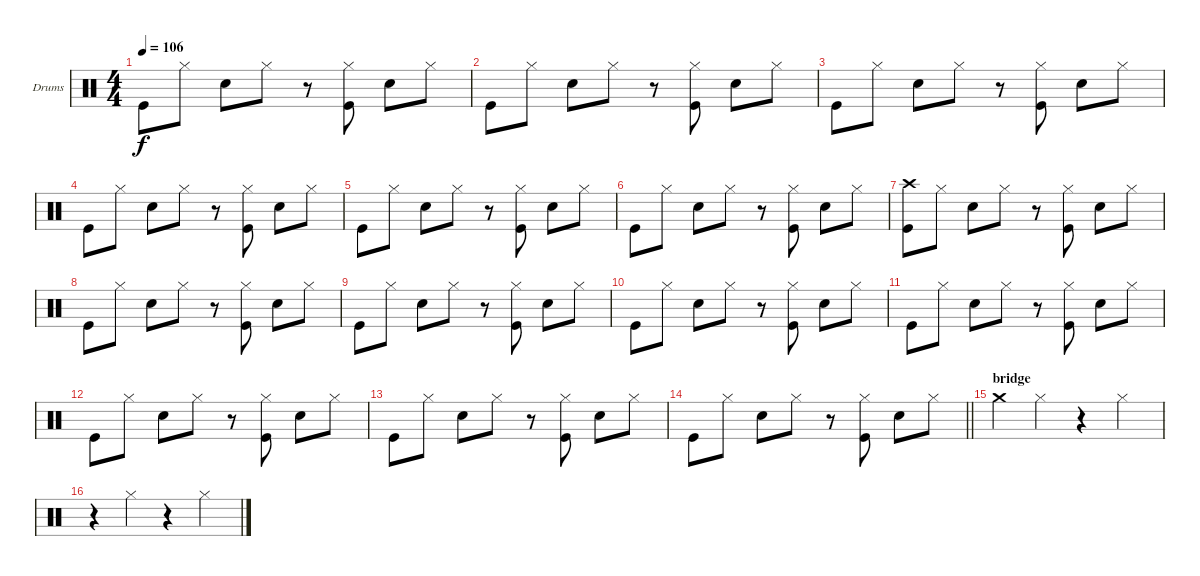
\bracketExtendMode groupsimilarinstruments
\firstSystemTrackNameOrientation horizontal
\otherSystemsTrackNameOrientation horizontal
\track ("Drumkit" "Drums") {instrument percussion}
\staff {score}
\articulation defaults
\ts (4 4)
\tempo 106
\clef neutral
\ks c "Kick (hit)".8{dy f} "Hi-Hat (closed)".8 "Snare (hit) 2".8 "Hi-Hat (closed)".8
r.8 ("Hi-Hat (closed)" "Kick (hit)").8 "Snare (hit) 2".8 "Hi-Hat (closed)".8 |
"Kick (hit)".8 "Hi-Hat (closed)".8 "Snare (hit) 2".8 "Hi-Hat (closed)".8 r.8 ("Hi-Hat (closed)" "Kick (hit)").8 "Snare (hit) 2".8 "Hi-Hat (closed)".8 |
"Kick (hit)".8 "Hi-Hat (closed)".8 "Snare (hit) 2".8 "Hi-Hat (closed)".8 r.8 ("Hi-Hat (closed)" "Kick (hit)").8 "Snare (hit) 2".8 "Hi-Hat (closed)".8 |
"Kick (hit)".8 "Hi-Hat (closed)".8 "Snare (hit) 2".8 "Hi-Hat (closed)".8 r.8 ("Hi-Hat (closed)" "Kick (hit)").8 "Snare (hit) 2".8 "Hi-Hat (closed)".8 |
"Kick (hit)".8 "Hi-Hat (closed)".8 "Snare (hit) 2".8 "Hi-Hat (closed)".8 r.8 ("Hi-Hat (closed)" "Kick (hit)").8 "Snare (hit) 2".8 "Hi-Hat (closed)".8 |
"Kick (hit)".8 "Hi-Hat (closed)".8 "Snare (hit) 2".8 "Hi-Hat (closed)".8 r.8 ("Hi-Hat (closed)" "Kick (hit)").8 "Snare (hit) 2".8 "Hi-Hat (closed)".8 |
("Crash high (hit)" "Kick (hit)").8 "Hi-Hat (closed)".8 "Snare (hit) 2".8 "Hi-Hat (closed)".8 r.8 ("Hi-Hat (closed)" "Kick (hit)").8 "Snare (hit) 2".8 "Hi-Hat (closed)".8 |
"Kick (hit)".8 "Hi-Hat (closed)".8 "Snare (hit) 2".8 "Hi-Hat (closed)".8 r.8 ("Hi-Hat (closed)" "Kick (hit)").8 "Snare (hit) 2".8 "Hi-Hat (closed)".8 |
"Kick (hit)".8 "Hi-Hat (closed)".8 "Snare (hit) 2".8 "Hi-Hat (closed)".8 r.8 ("Hi-Hat (closed)" "Kick (hit)").8 "Snare (hit) 2".8 "Hi-Hat (closed)".8 |
"Kick (hit)".8 "Hi-Hat (closed)".8 "Snare (hit) 2".8 "Hi-Hat (closed)".8 r.8 ("Hi-Hat (closed)" "Kick (hit)").8 "Snare (hit) 2".8 "Hi-Hat (closed)".8 |
"Kick (hit)".8 "Hi-Hat (closed)".8 "Snare (hit) 2".8 "Hi-Hat (closed)".8 r.8 ("Hi-Hat (closed)" "Kick (hit)").8 "Snare (hit) 2".8 "Hi-Hat (closed)".8 |
"Kick (hit)".8 "Hi-Hat (closed)".8 "Snare (hit) 2".8 "Hi-Hat (closed)".8 r.8 ("Hi-Hat (closed)" "Kick (hit)").8 "Snare (hit) 2".8 "Hi-Hat (closed)".8 |
"Kick (hit)".8 "Hi-Hat (closed)".8 "Snare (hit) 2".8 "Hi-Hat (closed)".8 r.8 ("Hi-Hat (closed)" "Kick (hit)").8 "Snare (hit) 2".8 "Hi-Hat (closed)".8 |
\barLineRight lightlight "Kick (hit)".8 "Hi-Hat (closed)".8 "Snare (hit) 2".8 "Hi-Hat (closed)".8
r.8 ("Hi-Hat (closed)" "Kick (hit)").8 "Snare (hit) 2".8 "Hi-Hat (closed)".8 |
\section ("" "bridge")
"Crash medium (hit)".4 "Hi-Hat (closed)".4 r.4 "Hi-Hat (closed)".4 |
r.4 "Hi-Hat (closed)".4 r.4 "Hi-Hat (closed)".4
